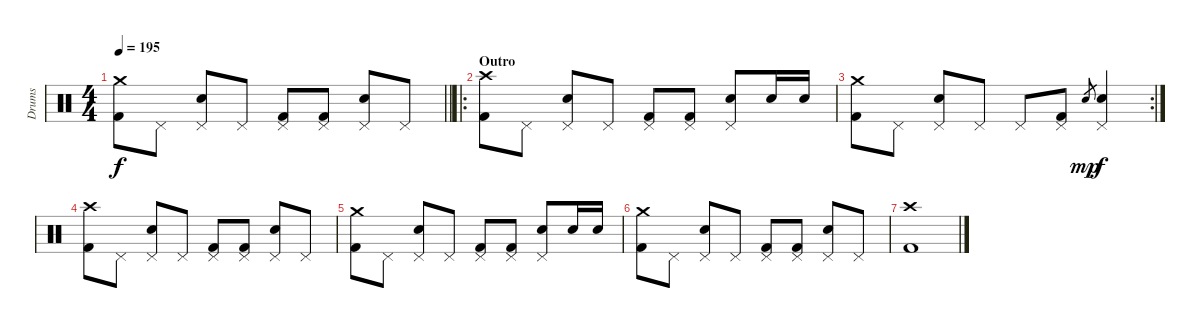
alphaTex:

\track ("Drums" "Drums") {instrument percussion}
\staff {score}
\articulation defaults
\ts (4 4)
\tempo 195
\clef neutral
\barLineRight lightlight
\ks c
("Crash medium (hit)" "Kick (hit) 2").8{dy f} "Pedal Hi-Hat (hit)".8 ("Pedal Hi-Hat (hit)" "Electric Snare (hit)").8 "Pedal Hi-Hat (hit)".8 ("Pedal Hi-Hat (hit)" "Kick (hit) 2").8 ("Pedal Hi-Hat (hit)" "Kick (hit) 2").8 ("Pedal Hi-Hat (hit)" "Electric Snare (hit)").8 "Pedal Hi-Hat (hit)".8 |
\ro
\section ("" "Outro")
("Crash high (hit)" "Kick (hit) 2").8 "Pedal Hi-Hat (hit)".8 ("Pedal Hi-Hat (hit)" "Electric Snare (hit)").8 "Pedal Hi-Hat (hit)".8 ("Pedal Hi-Hat (hit)" "Kick (hit) 2").8 ("Pedal Hi-Hat (hit)" "Kick (hit) 2").8 ("Pedal Hi-Hat (hit)" "Electric Snare (hit)").8 "Electric Snare (hit)".16 "Electric Snare (hit)".16 |
\rc 2
("Crash medium (hit)" "Kick (hit) 2").8 "Pedal Hi-Hat (hit)".8 ("Pedal Hi-Hat (hit)" "Electric Snare (hit)").8 "Pedal Hi-Hat (hit)".8 "Pedal Hi-Hat (hit)".8 ("Pedal Hi-Hat (hit)" "Kick (hit) 2").8 "Electric Snare (hit)".8{gr dy mp} ("Pedal Hi-Hat (hit)" "Electric Snare (hit)").4{dy f} |
("Crash high (hit)" "Kick (hit) 2").8 "Pedal Hi-Hat (hit)".8 ("Pedal Hi-Hat (hit)" "Electric Snare (hit)").8 "Pedal Hi-Hat (hit)".8 ("Pedal Hi-Hat (hit)" "Kick (hit) 2").8 ("Pedal Hi-Hat (hit)" "Kick (hit) 2").8 ("Pedal Hi-Hat (hit)" "Electric Snare (hit)").8 "Pedal Hi-Hat (hit)".8 |
("Crash medium (hit)" "Kick (hit) 2").8 "Pedal Hi-Hat (hit)".8 ("Pedal Hi-Hat (hit)" "Electric Snare (hit)").8 "Pedal Hi-Hat (hit)".8 ("Pedal Hi-Hat (hit)" "Kick (hit) 2").8 ("Pedal Hi-Hat (hit)" "Kick (hit) 2").8 ("Pedal Hi-Hat (hit)" "Electric Snare (hit)").8 "Electric Snare (hit)".16 "Electric Snare (hit)".16 |
("Crash medium (hit)" "Kick (hit) 2").8 "Pedal Hi-Hat (hit)".8 ("Pedal Hi-Hat (hit)" "Electric Snare (hit)").8 "Pedal Hi-Hat (hit)".8 ("Pedal Hi-Hat (hit)" "Kick (hit) 2").8 ("Pedal Hi-Hat (hit)" "Kick (hit) 2").8 ("Pedal Hi-Hat (hit)" "Electric Snare (hit)").8 "Pedal Hi-Hat (hit)".8 |
("Crash high (hit)" "Kick (hit) 2").1
